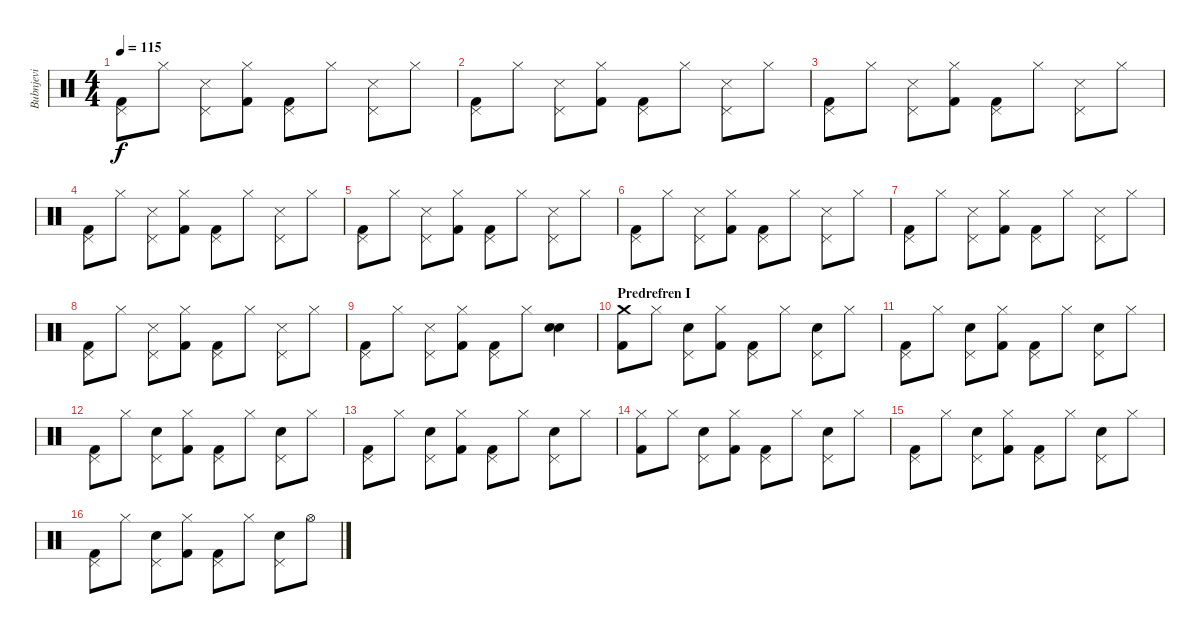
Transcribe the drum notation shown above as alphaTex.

\track ("Bubnjevi" "Bubnjevi") {instrument percussion}
\staff {score}
\articulation defaults
\ts (4 4)
\tempo 115
\clef neutral
\ks c
("Pedal Hi-Hat (hit)" "Kick (hit) 2").8{dy f} "Hi-Hat (closed)".8 ("Pedal Hi-Hat (hit)" "Snare (side stick) 3").8 ("Hi-Hat (closed)" "Kick (hit) 2").8 ("Pedal Hi-Hat (hit)" "Kick (hit) 2").8 "Hi-Hat (closed)".8 ("Pedal Hi-Hat (hit)" "Snare (side stick) 3").8 "Hi-Hat (closed)".8 |
("Pedal Hi-Hat (hit)" "Kick (hit) 2").8 "Hi-Hat (closed)".8 ("Pedal Hi-Hat (hit)" "Snare (side stick) 3").8 ("Hi-Hat (closed)" "Kick (hit) 2").8 ("Pedal Hi-Hat (hit)" "Kick (hit) 2").8 "Hi-Hat (closed)".8 ("Pedal Hi-Hat (hit)" "Snare (side stick) 3").8 "Hi-Hat (closed)".8 |
("Pedal Hi-Hat (hit)" "Kick (hit) 2").8 "Hi-Hat (closed)".8 ("Pedal Hi-Hat (hit)" "Snare (side stick) 3").8 ("Hi-Hat (closed)" "Kick (hit) 2").8 ("Pedal Hi-Hat (hit)" "Kick (hit) 2").8 "Hi-Hat (closed)".8 ("Pedal Hi-Hat (hit)" "Snare (side stick) 3").8 "Hi-Hat (closed)".8 |
("Pedal Hi-Hat (hit)" "Kick (hit) 2").8 "Hi-Hat (closed)".8 ("Pedal Hi-Hat (hit)" "Snare (side stick) 3").8 ("Hi-Hat (closed)" "Kick (hit) 2").8 ("Pedal Hi-Hat (hit)" "Kick (hit) 2").8 "Hi-Hat (closed)".8 ("Pedal Hi-Hat (hit)" "Snare (side stick) 3").8 "Hi-Hat (closed)".8 |
("Pedal Hi-Hat (hit)" "Kick (hit) 2").8 "Hi-Hat (closed)".8 ("Pedal Hi-Hat (hit)" "Snare (side stick) 3").8 ("Hi-Hat (closed)" "Kick (hit) 2").8 ("Pedal Hi-Hat (hit)" "Kick (hit) 2").8 "Hi-Hat (closed)".8 ("Pedal Hi-Hat (hit)" "Snare (side stick) 3").8 "Hi-Hat (closed)".8 |
("Pedal Hi-Hat (hit)" "Kick (hit) 2").8 "Hi-Hat (closed)".8 ("Pedal Hi-Hat (hit)" "Snare (side stick) 3").8 ("Hi-Hat (closed)" "Kick (hit) 2").8 ("Pedal Hi-Hat (hit)" "Kick (hit) 2").8 "Hi-Hat (closed)".8 ("Pedal Hi-Hat (hit)" "Snare (side stick) 3").8 "Hi-Hat (closed)".8 |
("Pedal Hi-Hat (hit)" "Kick (hit) 2").8 "Hi-Hat (closed)".8 ("Pedal Hi-Hat (hit)" "Snare (side stick) 3").8 ("Hi-Hat (closed)" "Kick (hit) 2").8 ("Pedal Hi-Hat (hit)" "Kick (hit) 2").8 "Hi-Hat (closed)".8 ("Pedal Hi-Hat (hit)" "Snare (side stick) 3").8 "Hi-Hat (closed)".8 |
("Pedal Hi-Hat (hit)" "Kick (hit) 2").8 "Hi-Hat (closed)".8 ("Pedal Hi-Hat (hit)" "Snare (side stick) 3").8 ("Hi-Hat (closed)" "Kick (hit) 2").8 ("Pedal Hi-Hat (hit)" "Kick (hit) 2").8 "Hi-Hat (closed)".8 ("Pedal Hi-Hat (hit)" "Snare (side stick) 3").8 "Hi-Hat (closed)".8 |
("Pedal Hi-Hat (hit)" "Kick (hit) 2").8 "Hi-Hat (closed)".8 ("Pedal Hi-Hat (hit)" "Snare (side stick) 3").8 ("Hi-Hat (closed)" "Kick (hit) 2").8 ("Pedal Hi-Hat (hit)" "Kick (hit) 2").8 "Hi-Hat (closed)".8 ("Electric Snare (hit)" "Electric Snare (hit)").4{bd 120} |
\section ("" "Predrefren I")
("Crash medium (hit)" "Kick (hit) 2").8 "Hi-Hat (closed)".8 ("Pedal Hi-Hat (hit)" "Electric Snare (hit)").8 ("Hi-Hat (closed)" "Kick (hit) 2").8 ("Pedal Hi-Hat (hit)" "Kick (hit) 2").8 "Hi-Hat (closed)".8 ("Pedal Hi-Hat (hit)" "Electric Snare (hit)").8 "Hi-Hat (closed)".8 |
("Pedal Hi-Hat (hit)" "Kick (hit) 2").8 "Hi-Hat (closed)".8 ("Pedal Hi-Hat (hit)" "Electric Snare (hit)").8 ("Hi-Hat (closed)" "Kick (hit) 2").8 ("Pedal Hi-Hat (hit)" "Kick (hit) 2").8 "Hi-Hat (closed)".8 ("Pedal Hi-Hat (hit)" "Electric Snare (hit)").8 "Hi-Hat (closed)".8 |
("Pedal Hi-Hat (hit)" "Kick (hit) 2").8 "Hi-Hat (closed)".8 ("Pedal Hi-Hat (hit)" "Electric Snare (hit)").8 ("Hi-Hat (closed)" "Kick (hit) 2").8 ("Pedal Hi-Hat (hit)" "Kick (hit) 2").8 "Hi-Hat (closed)".8 ("Pedal Hi-Hat (hit)" "Electric Snare (hit)").8 "Hi-Hat (closed)".8 |
("Pedal Hi-Hat (hit)" "Kick (hit) 2").8 "Hi-Hat (closed)".8 ("Pedal Hi-Hat (hit)" "Electric Snare (hit)").8 ("Hi-Hat (closed)" "Kick (hit) 2").8 ("Pedal Hi-Hat (hit)" "Kick (hit) 2").8 "Hi-Hat (closed)".8 ("Pedal Hi-Hat (hit)" "Electric Snare (hit)").8 "Hi-Hat (closed)".8 |
("Hi-Hat (closed)" "Kick (hit) 2").8 "Hi-Hat (closed)".8 ("Pedal Hi-Hat (hit)" "Electric Snare (hit)").8 ("Hi-Hat (closed)" "Kick (hit) 2").8 ("Pedal Hi-Hat (hit)" "Kick (hit) 2").8 "Hi-Hat (closed)".8 ("Pedal Hi-Hat (hit)" "Electric Snare (hit)").8 "Hi-Hat (closed)".8 |
("Pedal Hi-Hat (hit)" "Kick (hit) 2").8 "Hi-Hat (closed)".8 ("Pedal Hi-Hat (hit)" "Electric Snare (hit)").8 ("Hi-Hat (closed)" "Kick (hit) 2").8 ("Pedal Hi-Hat (hit)" "Kick (hit) 2").8 "Hi-Hat (closed)".8 ("Pedal Hi-Hat (hit)" "Electric Snare (hit)").8 "Hi-Hat (closed)".8 |
("Pedal Hi-Hat (hit)" "Kick (hit) 2").8 "Hi-Hat (closed)".8 ("Pedal Hi-Hat (hit)" "Electric Snare (hit)").8 ("Hi-Hat (closed)" "Kick (hit) 2").8 ("Pedal Hi-Hat (hit)" "Kick (hit) 2").8 "Hi-Hat (closed)".8 ("Pedal Hi-Hat (hit)" "Electric Snare (hit)").8 "Hi-Hat (open)".8
